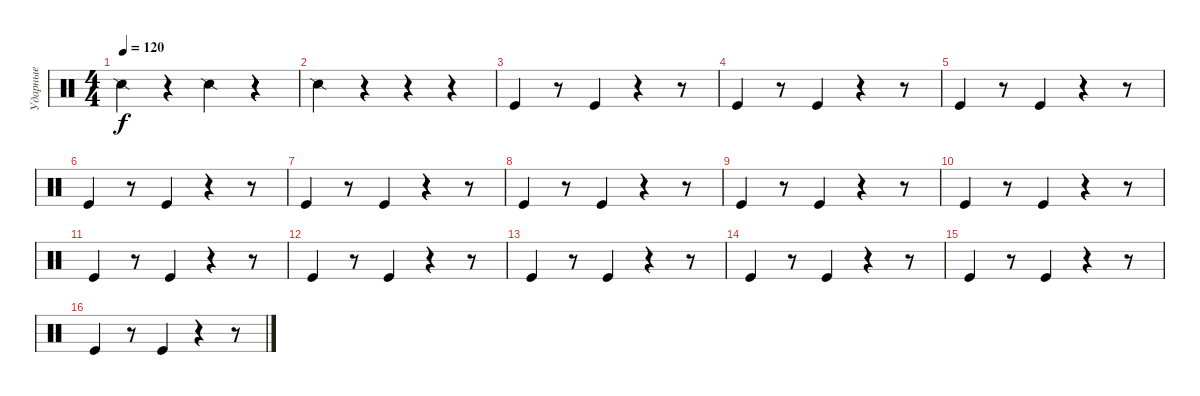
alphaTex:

\track ("Ударные" "Ударные") {instrument percussion}
\staff {score}
\articulation defaults
\ts (4 4)
\tempo 120
\clef neutral
\ks c "Snare (side stick) 2".4{dy f}
r.4 "Snare (side stick) 2".4 r.4 |
"Snare (side stick) 2".4 r.4 r.4 r.4 |
"Kick (hit)".4 r.8 "Kick (hit)".4 r.4 r.8 |
"Kick (hit)".4 r.8 "Kick (hit)".4 r.4 r.8 |
"Kick (hit)".4 r.8 "Kick (hit)".4 r.4 r.8 |
"Kick (hit)".4 r.8 "Kick (hit)".4 r.4 r.8 |
"Kick (hit)".4 r.8 "Kick (hit)".4 r.4 r.8 |
"Kick (hit)".4 r.8 "Kick (hit)".4 r.4 r.8 |
"Kick (hit)".4 r.8 "Kick (hit)".4 r.4 r.8 |
"Kick (hit)".4 r.8 "Kick (hit)".4 r.4 r.8 |
"Kick (hit)".4 r.8 "Kick (hit)".4 r.4 r.8 |
"Kick (hit)".4 r.8 "Kick (hit)".4 r.4 r.8 |
"Kick (hit)".4 r.8 "Kick (hit)".4 r.4 r.8 |
"Kick (hit)".4 r.8 "Kick (hit)".4 r.4 r.8 |
"Kick (hit)".4 r.8 "Kick (hit)".4 r.4 r.8 |
"Kick (hit)".4 r.8 "Kick (hit)".4 r.4 r.8
